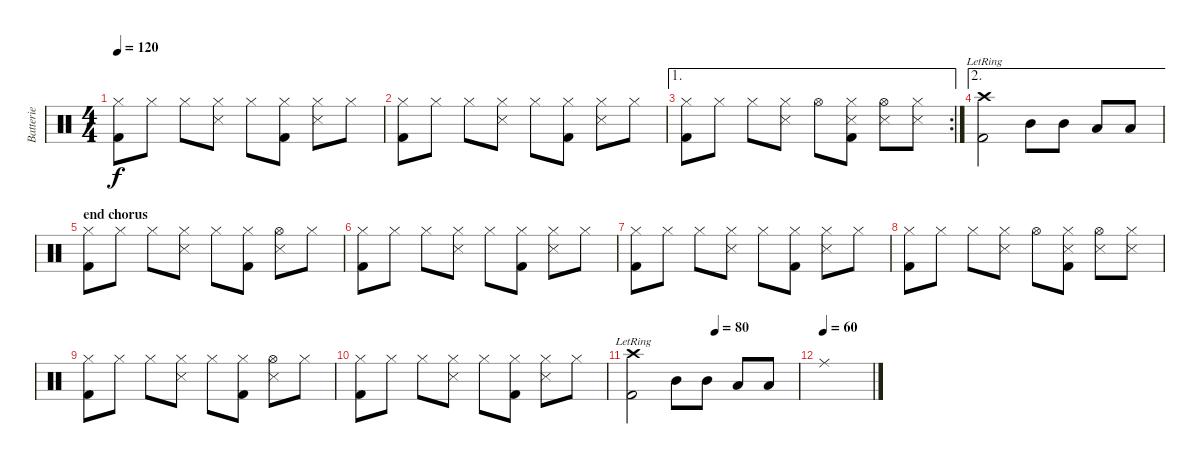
\track ("Batterie" "Batterie") {instrument percussion}
\staff {score}
\articulation defaults
\ts (4 4)
\tempo 120
\clef neutral
\ks c
("Hi-Hat (closed)" "Kick (hit) 2").8{dy f} "Hi-Hat (closed)".8 "Hi-Hat (closed)".8 ("Hi-Hat (closed)" "Snare (side stick) 3").8 "Hi-Hat (closed)".8 ("Hi-Hat (closed)" "Kick (hit) 2").8 ("Hi-Hat (closed)" "Snare (side stick) 3").8 "Hi-Hat (closed)".8 |
("Hi-Hat (closed)" "Kick (hit) 2").8 "Hi-Hat (closed)".8 "Hi-Hat (closed)".8 ("Hi-Hat (closed)" "Snare (side stick) 3").8 "Hi-Hat (closed)".8 ("Hi-Hat (closed)" "Kick (hit) 2").8 ("Hi-Hat (closed)" "Snare (side stick) 3").8 "Hi-Hat (closed)".8 |
\ae 1
\rc 2
("Hi-Hat (closed)" "Kick (hit) 2").8 "Hi-Hat (closed)".8 "Hi-Hat (closed)".8 ("Hi-Hat (closed)" "Snare (side stick) 3").8 "Hi-Hat (open)".8 ("Hi-Hat (closed)" "Snare (side stick) 3" "Kick (hit) 2").8 ("Hi-Hat (open)" "Snare (side stick) 3").8 ("Hi-Hat (closed)" "Snare (side stick) 3").8 |
\ae 2
("Crash high (hit)"{lr} "Kick (hit) 2"{lr}).2 "Mid Tom (hit)".8 "Mid Tom (hit)".8 "Low Tom (hit)".8 "Low Tom (hit)".8 |
\section ("" "end chorus")
("Hi-Hat (closed)" "Kick (hit) 2").8 "Hi-Hat (closed)".8 "Hi-Hat (closed)".8 ("Hi-Hat (closed)" "Snare (side stick) 3").8 "Hi-Hat (closed)".8 ("Hi-Hat (closed)" "Kick (hit) 2").8 ("Hi-Hat (open)" "Snare (side stick) 3").8 "Hi-Hat (closed)".8 |
("Hi-Hat (closed)" "Kick (hit) 2").8 "Hi-Hat (closed)".8 "Hi-Hat (closed)".8 ("Hi-Hat (closed)" "Snare (side stick) 3").8 "Hi-Hat (closed)".8 ("Hi-Hat (closed)" "Kick (hit) 2").8 ("Hi-Hat (closed)" "Snare (side stick) 3").8 "Hi-Hat (closed)".8 |
("Hi-Hat (closed)" "Kick (hit) 2").8 "Hi-Hat (closed)".8 "Hi-Hat (closed)".8 ("Hi-Hat (closed)" "Snare (side stick) 3").8 "Hi-Hat (closed)".8 ("Hi-Hat (closed)" "Kick (hit) 2").8 ("Hi-Hat (closed)" "Snare (side stick) 3").8 "Hi-Hat (closed)".8 |
("Hi-Hat (closed)" "Kick (hit) 2").8 "Hi-Hat (closed)".8 "Hi-Hat (closed)".8 ("Hi-Hat (closed)" "Snare (side stick) 3").8 "Hi-Hat (open)".8 ("Hi-Hat (closed)" "Snare (side stick) 3" "Kick (hit) 2").8 ("Hi-Hat (open)" "Snare (side stick) 3").8 ("Hi-Hat (closed)" "Snare (side stick) 3").8 |
("Hi-Hat (closed)" "Kick (hit) 2").8 "Hi-Hat (closed)".8 "Hi-Hat (closed)".8 ("Hi-Hat (closed)" "Snare (side stick) 3").8 "Hi-Hat (closed)".8 ("Hi-Hat (closed)" "Kick (hit) 2").8 ("Hi-Hat (open)" "Snare (side stick) 3").8 "Hi-Hat (closed)".8 |
("Hi-Hat (closed)" "Kick (hit) 2").8 "Hi-Hat (closed)".8 "Hi-Hat (closed)".8 ("Hi-Hat (closed)" "Snare (side stick) 3").8 "Hi-Hat (closed)".8 ("Hi-Hat (closed)" "Kick (hit) 2").8 ("Hi-Hat (closed)" "Snare (side stick) 3").8 "Hi-Hat (closed)".8 |
\tempo (80 0.5)
("Crash high (hit)"{lr} "Kick (hit) 2"{lr}).2 "Mid Tom (hit)".8 "Mid Tom (hit)".8 "Low Tom (hit)".8 "Low Tom (hit)".8 |
\tempo (60)
"Ride (middle)".1
